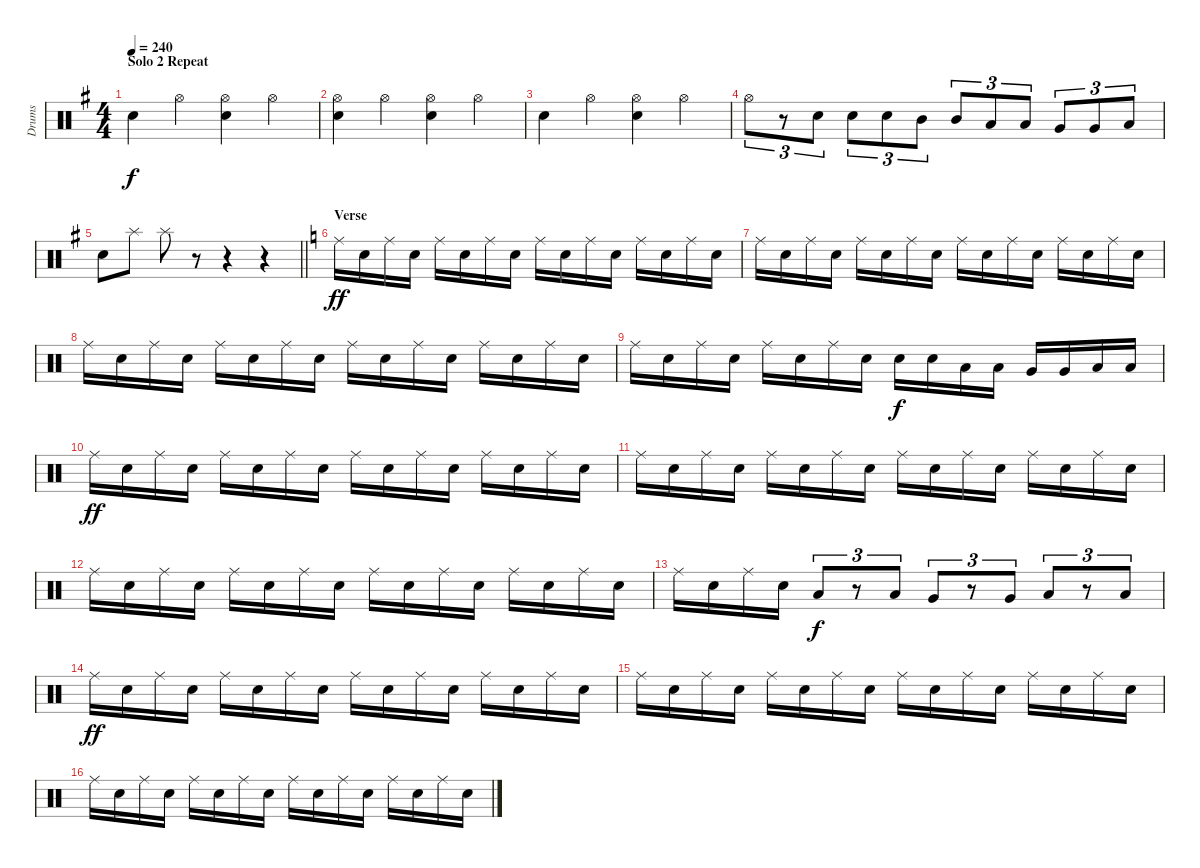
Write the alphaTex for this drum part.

\track ("Drums" "Drums") {instrument percussion}
\staff {score}
\articulation defaults
\ts (4 4)
\section ("" "Solo 2 Repeat")
\tempo 240
\clef neutral
\ks g "Electric Snare (hit)".4{dy f} "Hi-Hat (open)".4
("Hi-Hat (open)" "Electric Snare (hit)").4 "Hi-Hat (open)".4 |
("Hi-Hat (open)" "Electric Snare (hit)").4 "Hi-Hat (open)".4 ("Hi-Hat (open)" "Electric Snare (hit)").4 "Hi-Hat (open)".4 |
"Electric Snare (hit)".4 "Hi-Hat (open)".4 ("Hi-Hat (open)" "Electric Snare (hit)").4 "Hi-Hat (open)".4 |
"Hi-Hat (open)".8{tu (3 2)} r.8{tu (3 2)} "Electric Snare (hit)".8{tu (3 2)} "Electric Snare (hit)".8{tu (3 2)} "Electric Snare (hit)".8{tu (3 2)} "Mid Tom (hit)".8{tu (3 2)} "Mid Tom (hit)".8{tu (3 2)} "Low Tom (hit)".8{tu (3 2)} "Low Tom (hit)".8{tu (3 2)} "Very Low Tom (hit)".8{tu (3 2)} "Very Low Tom (hit)".8{tu (3 2)} "Low Floor Tom (hit)".8{tu (3 2)} |
\barLineRight lightlight "Electric Snare (hit)".8 "Splash (hit)".8{volume 10} "Splash (hit)".8{volume 14}
r.8 r.4 r.4 |
\section ("" "Verse")
\ks c "Ride (middle)".16{dy ff} "Electric Snare (hit)".16 "Ride (middle)".16 "Electric Snare (hit)".16 "Ride (middle)".16 "Electric Snare (hit)".16 "Ride (middle)".16 "Electric Snare (hit)".16 "Ride (middle)".16 "Electric Snare (hit)".16 "Ride (middle)".16 "Electric Snare (hit)".16 "Ride (middle)".16 "Electric Snare (hit)".16 "Ride (middle)".16 "Electric Snare (hit)".16
|
"Ride (middle)".16 "Electric Snare (hit)".16 "Ride (middle)".16 "Electric Snare (hit)".16 "Ride (middle)".16 "Electric Snare (hit)".16 "Ride (middle)".16 "Electric Snare (hit)".16 "Ride (middle)".16 "Electric Snare (hit)".16 "Ride (middle)".16 "Electric Snare (hit)".16 "Ride (middle)".16 "Electric Snare (hit)".16 "Ride (middle)".16 "Electric Snare (hit)".16 |
"Ride (middle)".16 "Electric Snare (hit)".16 "Ride (middle)".16 "Electric Snare (hit)".16 "Ride (middle)".16 "Electric Snare (hit)".16 "Ride (middle)".16 "Electric Snare (hit)".16 "Ride (middle)".16 "Electric Snare (hit)".16 "Ride (middle)".16 "Electric Snare (hit)".16 "Ride (middle)".16 "Electric Snare (hit)".16 "Ride (middle)".16 "Electric Snare (hit)".16 |
"Ride (middle)".16 "Electric Snare (hit)".16 "Ride (middle)".16 "Electric Snare (hit)".16 "Ride (middle)".16 "Electric Snare (hit)".16 "Ride (middle)".16 "Electric Snare (hit)".16 "Electric Snare (hit)".16{dy f} "Electric Snare (hit)".16 "Low Tom (hit)".16 "Low Tom (hit)".16 "Very Low Tom (hit)".16 "Very Low Tom (hit)".16 "Low Floor Tom (hit)".16 "Low Floor Tom (hit)".16 |
"Ride (middle)".16{dy ff} "Electric Snare (hit)".16 "Ride (middle)".16 "Electric Snare (hit)".16 "Ride (middle)".16 "Electric Snare (hit)".16 "Ride (middle)".16 "Electric Snare (hit)".16 "Ride (middle)".16 "Electric Snare (hit)".16 "Ride (middle)".16 "Electric Snare (hit)".16 "Ride (middle)".16 "Electric Snare (hit)".16 "Ride (middle)".16 "Electric Snare (hit)".16 |
"Ride (middle)".16 "Electric Snare (hit)".16 "Ride (middle)".16 "Electric Snare (hit)".16 "Ride (middle)".16 "Electric Snare (hit)".16 "Ride (middle)".16 "Electric Snare (hit)".16 "Ride (middle)".16 "Electric Snare (hit)".16 "Ride (middle)".16 "Electric Snare (hit)".16 "Ride (middle)".16 "Electric Snare (hit)".16 "Ride (middle)".16 "Electric Snare (hit)".16 |
"Ride (middle)".16 "Electric Snare (hit)".16 "Ride (middle)".16 "Electric Snare (hit)".16 "Ride (middle)".16 "Electric Snare (hit)".16 "Ride (middle)".16 "Electric Snare (hit)".16 "Ride (middle)".16 "Electric Snare (hit)".16 "Ride (middle)".16 "Electric Snare (hit)".16 "Ride (middle)".16 "Electric Snare (hit)".16 "Ride (middle)".16 "Electric Snare (hit)".16 |
"Ride (middle)".16 "Electric Snare (hit)".16 "Ride (middle)".16 "Electric Snare (hit)".16 "Low Tom (hit)".8{tu (3 2) dy f} r.8{tu (3 2)} "Low Tom (hit)".8{tu (3 2)} "Very Low Tom (hit)".8{tu (3 2)} r.8{tu (3 2)} "Very Low Tom (hit)".8{tu (3 2)} "Low Floor Tom (hit)".8{tu (3 2)} r.8{tu (3 2)} "Low Floor Tom (hit)".8{tu (3 2)} |
"Ride (middle)".16{dy ff} "Electric Snare (hit)".16 "Ride (middle)".16 "Electric Snare (hit)".16 "Ride (middle)".16 "Electric Snare (hit)".16 "Ride (middle)".16 "Electric Snare (hit)".16 "Ride (middle)".16 "Electric Snare (hit)".16 "Ride (middle)".16 "Electric Snare (hit)".16 "Ride (middle)".16 "Electric Snare (hit)".16 "Ride (middle)".16 "Electric Snare (hit)".16 |
"Ride (middle)".16 "Electric Snare (hit)".16 "Ride (middle)".16 "Electric Snare (hit)".16 "Ride (middle)".16 "Electric Snare (hit)".16 "Ride (middle)".16 "Electric Snare (hit)".16 "Ride (middle)".16 "Electric Snare (hit)".16 "Ride (middle)".16 "Electric Snare (hit)".16 "Ride (middle)".16 "Electric Snare (hit)".16 "Ride (middle)".16 "Electric Snare (hit)".16 |
"Ride (middle)".16 "Electric Snare (hit)".16 "Ride (middle)".16 "Electric Snare (hit)".16 "Ride (middle)".16 "Electric Snare (hit)".16 "Ride (middle)".16 "Electric Snare (hit)".16 "Ride (middle)".16 "Electric Snare (hit)".16 "Ride (middle)".16 "Electric Snare (hit)".16 "Ride (middle)".16 "Electric Snare (hit)".16 "Ride (middle)".16 "Electric Snare (hit)".16
